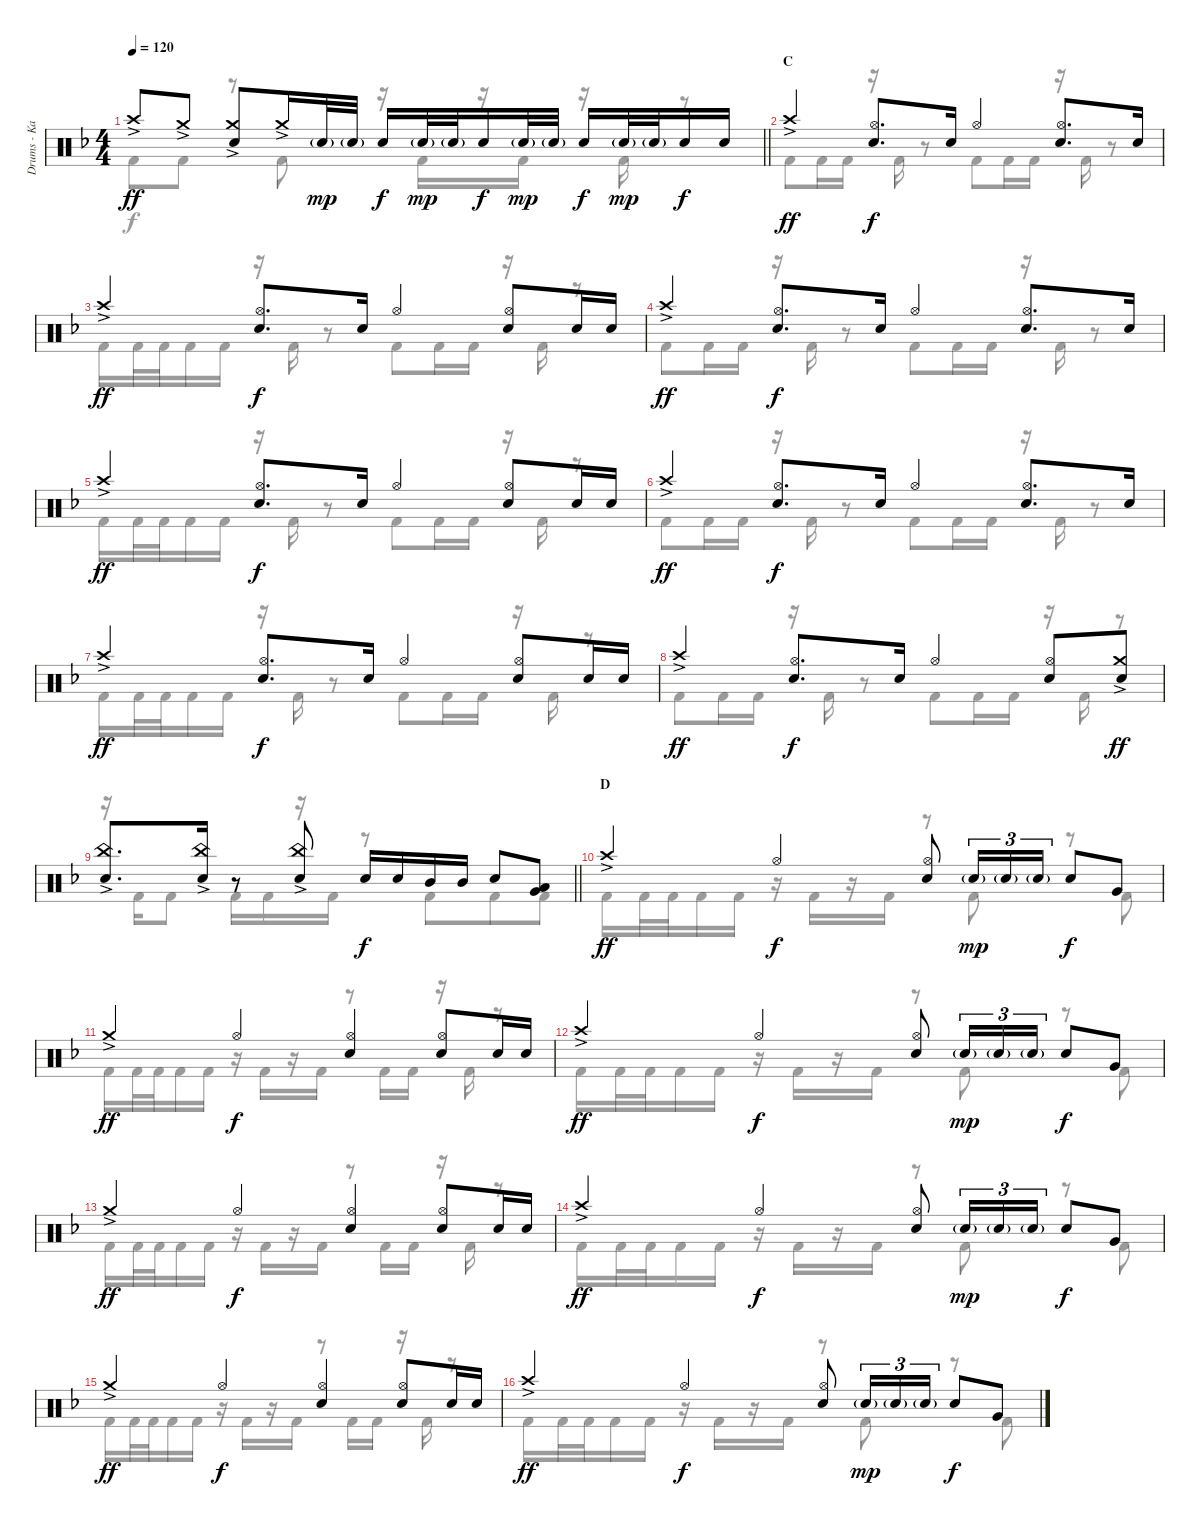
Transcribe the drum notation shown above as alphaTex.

\track ("Drums - Kai" "Drums - Ka") {instrument percussion}
\staff {score}
\articulation defaults
\voice
\ts (4 4)
\tempo 120
\clef neutral
\barLineRight lightlight
\ks f "Crash high (hit)"{ac}.8{dy ff} "Crash medium (hit)"{ac}.8
("Crash medium (hit)"{ac} "Snare (hit) 2").8 "Crash medium (hit)"{ac}.16 "Snare (hit) 2"{g}.32{dy mp} "Snare (hit) 2"{g}.32 "Snare (hit) 2".16{dy f} "Snare (hit) 2"{g}.32{dy mp} "Snare (hit) 2"{g}.32 "Snare (hit) 2".16{dy f} "Snare (hit) 2"{g}.32{dy mp} "Snare (hit) 2"{g}.32 "Snare (hit) 2".16{dy f} "Snare (hit) 2"{g}.32{dy mp} "Snare (hit) 2"{g}.32 "Snare (hit) 2".16{dy f} "Snare (hit) 2".16 |
\section ("" "C")
"Crash high (hit)"{ac}.4{dy ff} ("Hi-Hat (open)" "Snare (hit) 2").8{d dy f} "Snare (hit) 2".16 "Hi-Hat (open)".4 ("Hi-Hat (open)" "Snare (hit) 2").8{d} "Snare (hit) 2".16 |
"Crash high (hit)"{ac}.4{dy ff} ("Hi-Hat (open)" "Snare (hit) 2").8{d dy f} "Snare (hit) 2".16 "Hi-Hat (open)".4 ("Hi-Hat (open)" "Snare (hit) 2").8 "Snare (hit) 2".16 "Snare (hit) 2".16 |
"Crash high (hit)"{ac}.4{dy ff} ("Hi-Hat (open)" "Snare (hit) 2").8{d dy f} "Snare (hit) 2".16 "Hi-Hat (open)".4 ("Hi-Hat (open)" "Snare (hit) 2").8{d} "Snare (hit) 2".16 |
"Crash high (hit)"{ac}.4{dy ff} ("Hi-Hat (open)" "Snare (hit) 2").8{d dy f} "Snare (hit) 2".16 "Hi-Hat (open)".4 ("Hi-Hat (open)" "Snare (hit) 2").8 "Snare (hit) 2".16 "Snare (hit) 2".16 |
"Crash high (hit)"{ac}.4{dy ff} ("Hi-Hat (open)" "Snare (hit) 2").8{d dy f} "Snare (hit) 2".16 "Hi-Hat (open)".4 ("Hi-Hat (open)" "Snare (hit) 2").8{d} "Snare (hit) 2".16 |
"Crash high (hit)"{ac}.4{dy ff} ("Hi-Hat (open)" "Snare (hit) 2").8{d dy f} "Snare (hit) 2".16 "Hi-Hat (open)".4 ("Hi-Hat (open)" "Snare (hit) 2").8 "Snare (hit) 2".16 "Snare (hit) 2".16 |
"Crash high (hit)"{ac}.4{dy ff} ("Hi-Hat (open)" "Snare (hit) 2").8{d dy f} "Snare (hit) 2".16 "Hi-Hat (open)".4 ("Hi-Hat (open)" "Snare (hit) 2").8 ("Crash medium (hit)"{ac} "Snare (hit) 2").8{dy ff} |
\barLineRight lightlight
("China (hit)"{ac} "Snare (hit) 2").8{d} ("China (hit)"{ac} "Snare (hit) 2").16 r.8 ("China (hit)"{ac} "Snare (hit) 2").8 "Snare (hit) 2".16{dy f} "Snare (hit) 2".16 "Mid Tom (hit)".16 "Mid Tom (hit)".16 "Snare (hit) 2".8 ("Low Tom (hit)" "Very Low Tom (hit)").8 |
\section ("" "D")
"Crash high (hit)"{ac}.4{dy ff} "Hi-Hat (open)".4{dy f} ("Hi-Hat (open)" "Snare (hit) 2").8 "Snare (hit) 2"{g}.16{tu (3 2) dy mp} "Snare (hit) 2"{g}.16{tu (3 2)} "Snare (hit) 2"{g}.16{tu (3 2)} "Snare (hit) 2".8{dy f} "Very Low Tom (hit)".8 |
"Crash medium (hit)"{ac}.4{dy ff} "Hi-Hat (open)".4{dy f} ("Hi-Hat (open)" "Snare (hit) 2").4 ("Hi-Hat (open)" "Snare (hit) 2").8 "Snare (hit) 2".16 "Snare (hit) 2".16 |
"Crash high (hit)"{ac}.4{dy ff} "Hi-Hat (open)".4{dy f} ("Hi-Hat (open)" "Snare (hit) 2").8 "Snare (hit) 2"{g}.16{tu (3 2) dy mp} "Snare (hit) 2"{g}.16{tu (3 2)} "Snare (hit) 2"{g}.16{tu (3 2)} "Snare (hit) 2".8{dy f} "Very Low Tom (hit)".8 |
"Crash medium (hit)"{ac}.4{dy ff} "Hi-Hat (open)".4{dy f} ("Hi-Hat (open)" "Snare (hit) 2").4 ("Hi-Hat (open)" "Snare (hit) 2").8 "Snare (hit) 2".16 "Snare (hit) 2".16 |
"Crash high (hit)"{ac}.4{dy ff} "Hi-Hat (open)".4{dy f} ("Hi-Hat (open)" "Snare (hit) 2").8 "Snare (hit) 2"{g}.16{tu (3 2) dy mp} "Snare (hit) 2"{g}.16{tu (3 2)} "Snare (hit) 2"{g}.16{tu (3 2)} "Snare (hit) 2".8{dy f} "Very Low Tom (hit)".8 |
"Crash medium (hit)"{ac}.4{dy ff} "Hi-Hat (open)".4{dy f} ("Hi-Hat (open)" "Snare (hit) 2").4 ("Hi-Hat (open)" "Snare (hit) 2").8 "Snare (hit) 2".16 "Snare (hit) 2".16 |
"Crash high (hit)"{ac}.4{dy ff} "Hi-Hat (open)".4{dy f} ("Hi-Hat (open)" "Snare (hit) 2").8 "Snare (hit) 2"{g}.16{tu (3 2) dy mp} "Snare (hit) 2"{g}.16{tu (3 2)} "Snare (hit) 2"{g}.16{tu (3 2)} "Snare (hit) 2".8{dy f} "Very Low Tom (hit)".8
\voice
\clef neutral
\ottava regular
\simile none
\barLineRight lightlight
\ks f "Kick (hit) 2".8{dy f} "Kick (hit) 2".8
r.8 "Kick (hit) 2".8 r.16 "Kick (hit) 2".16 r.16 "Kick (hit) 2".16 r.16 "Kick (hit) 2".16 r.8 |
"Kick (hit) 2".8 "Kick (hit) 2".16 "Kick (hit) 2".16 r.16 "Kick (hit) 2".16 r.8 "Kick (hit) 2".8 "Kick (hit) 2".16 "Kick (hit) 2".16 r.16 "Kick (hit) 2".16 r.8 |
"Kick (hit) 2".16 "Kick (hit) 2".32 "Kick (hit) 2".32 "Kick (hit) 2".16 "Kick (hit) 2".16 r.16 "Kick (hit) 2".16 r.8 "Kick (hit) 2".8 "Kick (hit) 2".16 "Kick (hit) 2".16 r.16 "Kick (hit) 2".16 r.8 |
"Kick (hit) 2".8 "Kick (hit) 2".16 "Kick (hit) 2".16 r.16 "Kick (hit) 2".16 r.8 "Kick (hit) 2".8 "Kick (hit) 2".16 "Kick (hit) 2".16 r.16 "Kick (hit) 2".16 r.8 |
"Kick (hit) 2".16 "Kick (hit) 2".32 "Kick (hit) 2".32 "Kick (hit) 2".16 "Kick (hit) 2".16 r.16 "Kick (hit) 2".16 r.8 "Kick (hit) 2".8 "Kick (hit) 2".16 "Kick (hit) 2".16 r.16 "Kick (hit) 2".16 r.8 |
"Kick (hit) 2".8 "Kick (hit) 2".16 "Kick (hit) 2".16 r.16 "Kick (hit) 2".16 r.8 "Kick (hit) 2".8 "Kick (hit) 2".16 "Kick (hit) 2".16 r.16 "Kick (hit) 2".16 r.8 |
"Kick (hit) 2".16 "Kick (hit) 2".32 "Kick (hit) 2".32 "Kick (hit) 2".16 "Kick (hit) 2".16 r.16 "Kick (hit) 2".16 r.8 "Kick (hit) 2".8 "Kick (hit) 2".16 "Kick (hit) 2".16 r.16 "Kick (hit) 2".16 r.8 |
"Kick (hit) 2".8 "Kick (hit) 2".16 "Kick (hit) 2".16 r.16 "Kick (hit) 2".16 r.8 "Kick (hit) 2".8 "Kick (hit) 2".16 "Kick (hit) 2".16 r.16 "Kick (hit) 2".16 r.8 |
\barLineRight lightlight
r.16 "Kick (hit) 2".16 "Kick (hit) 2".8 "Kick (hit) 2".16 "Kick (hit) 2".16 r.16 "Kick (hit) 2".16 r.8 "Kick (hit) 2".8{beam merge} "Kick (hit) 2".8 "Kick (hit) 2".8 |
"Kick (hit) 2".16 "Kick (hit) 2".32 "Kick (hit) 2".32 "Kick (hit) 2".16 "Kick (hit) 2".16 r.16 "Kick (hit) 2".16 r.16 "Kick (hit) 2".16 r.8 "Kick (hit) 2".8 r.8 "Kick (hit) 2".8 |
"Kick (hit) 2".16 "Kick (hit) 2".32 "Kick (hit) 2".32 "Kick (hit) 2".16 "Kick (hit) 2".16 r.16 "Kick (hit) 2".16 r.16 "Kick (hit) 2".16 r.8 "Kick (hit) 2".16 "Kick (hit) 2".16 r.16 "Kick (hit) 2".16 r.8 |
"Kick (hit) 2".16 "Kick (hit) 2".32 "Kick (hit) 2".32 "Kick (hit) 2".16 "Kick (hit) 2".16 r.16 "Kick (hit) 2".16 r.16 "Kick (hit) 2".16 r.8 "Kick (hit) 2".8 r.8 "Kick (hit) 2".8 |
"Kick (hit) 2".16 "Kick (hit) 2".32 "Kick (hit) 2".32 "Kick (hit) 2".16 "Kick (hit) 2".16 r.16 "Kick (hit) 2".16 r.16 "Kick (hit) 2".16 r.8 "Kick (hit) 2".16 "Kick (hit) 2".16 r.16 "Kick (hit) 2".16 r.8 |
"Kick (hit) 2".16 "Kick (hit) 2".32 "Kick (hit) 2".32 "Kick (hit) 2".16 "Kick (hit) 2".16 r.16 "Kick (hit) 2".16 r.16 "Kick (hit) 2".16 r.8 "Kick (hit) 2".8 r.8 "Kick (hit) 2".8 |
"Kick (hit) 2".16 "Kick (hit) 2".32 "Kick (hit) 2".32 "Kick (hit) 2".16 "Kick (hit) 2".16 r.16 "Kick (hit) 2".16 r.16 "Kick (hit) 2".16 r.8 "Kick (hit) 2".16 "Kick (hit) 2".16 r.16 "Kick (hit) 2".16 r.8 |
"Kick (hit) 2".16 "Kick (hit) 2".32 "Kick (hit) 2".32 "Kick (hit) 2".16 "Kick (hit) 2".16 r.16 "Kick (hit) 2".16 r.16 "Kick (hit) 2".16 r.8 "Kick (hit) 2".8 r.8 "Kick (hit) 2".8
